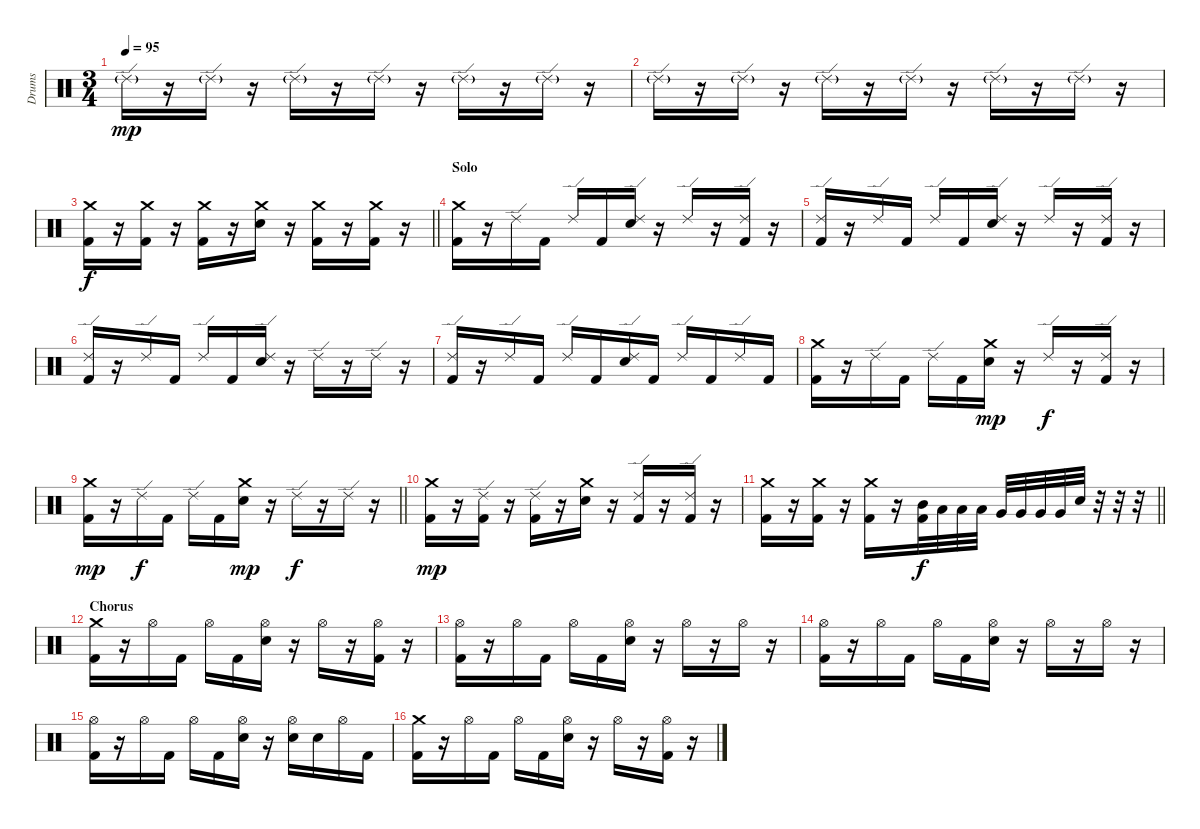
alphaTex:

\track ("Drums" "Drums") {instrument percussion}
\staff {score}
\articulation defaults
\ts (3 4)
\tempo 95
\clef neutral
\ks c "Ride (edge) 2"{g}.16{dy mp}
r.16 "Ride (edge) 2"{g}.16 r.16 "Ride (edge) 2"{g}.16 r.16 "Ride (edge) 2"{g}.16 r.16 "Ride (edge) 2"{g}.16 r.16 "Ride (edge) 2"{g}.16 r.16 |
"Ride (edge) 2"{g}.16 r.16 "Ride (edge) 2"{g}.16 r.16 "Ride (edge) 2"{g}.16 r.16 "Ride (edge) 2"{g}.16 r.16 "Ride (edge) 2"{g}.16 r.16 "Ride (edge) 2"{g}.16 r.16 |
\barLineRight lightlight
("Crash medium (hit)" "Kick (hit) 2").16{dy f} r.16 ("Crash medium (hit)" "Kick (hit) 2").16 r.16 ("Crash medium (hit)" "Kick (hit) 2").16 r.16 ("Crash medium (hit)" "Electric Snare (hit)").16 r.16 ("Crash medium (hit)" "Kick (hit) 2").16 r.16 ("Crash medium (hit)" "Kick (hit) 2").16 r.16 |
\section ("" "Solo")
("Crash medium (hit)" "Kick (hit) 2").16 r.16 "Ride (edge) 2".16 "Kick (hit) 2".16 "Ride (edge) 2".16 "Kick (hit) 2".16 ("Ride (edge) 2" "Electric Snare (hit)").16 r.16 "Ride (edge) 2".16 r.16 ("Ride (edge) 2" "Kick (hit) 2").16 r.16 |
("Ride (edge) 2" "Kick (hit) 2").16 r.16 "Ride (edge) 2".16 "Kick (hit) 2".16 "Ride (edge) 2".16 "Kick (hit) 2".16 ("Ride (edge) 2" "Electric Snare (hit)").16 r.16 "Ride (edge) 2".16 r.16 ("Ride (edge) 2" "Kick (hit) 2").16 r.16 |
("Ride (edge) 2" "Kick (hit) 2").16 r.16 "Ride (edge) 2".16 "Kick (hit) 2".16 "Ride (edge) 2".16 "Kick (hit) 2".16 ("Ride (edge) 2" "Electric Snare (hit)").16 r.16 "Ride (edge) 2".16 r.16 "Ride (edge) 2".16 r.16 |
("Ride (edge) 2" "Kick (hit) 2").16 r.16 "Ride (edge) 2".16 "Kick (hit) 2".16 "Ride (edge) 2".16 "Kick (hit) 2".16 ("Ride (edge) 2" "Electric Snare (hit)").16 "Kick (hit) 2".16 "Ride (edge) 2".16 "Kick (hit) 2".16 "Ride (edge) 2".16 "Kick (hit) 2".16 |
("Crash medium (hit)" "Kick (hit) 2").16 r.16 "Ride (edge) 2".16 "Kick (hit) 2".16 "Ride (edge) 2".16 "Kick (hit) 2".16 ("Crash medium (hit)" "Electric Snare (hit)").16{dy mp} r.16 "Ride (edge) 2".16{dy f} r.16 ("Ride (edge) 2" "Kick (hit) 2").16 r.16 |
\barLineRight lightlight
("Crash medium (hit)" "Kick (hit) 2").16{dy mp} r.16 "Ride (edge) 2".16{dy f} "Kick (hit) 2".16 "Ride (edge) 2".16 "Kick (hit) 2".16 ("Crash medium (hit)" "Electric Snare (hit)").16{dy mp} r.16 "Ride (edge) 2".16{dy f} r.16 "Ride (edge) 2".16 r.16 |
("Crash medium (hit)" "Kick (hit) 2").16{dy mp} r.16 ("Ride (edge) 2" "Kick (hit) 2").16 r.16 ("Ride (edge) 2" "Kick (hit) 2").16 r.16 ("Crash medium (hit)" "Electric Snare (hit)").16 r.16 ("Ride (edge) 2" "Kick (hit) 2").16 r.16 ("Ride (edge) 2" "Kick (hit) 2").16 r.16 |
\barLineRight lightlight
("Crash medium (hit)" "Kick (hit) 2").16 r.16 ("Crash medium (hit)" "Kick (hit) 2").16 r.16 ("Crash medium (hit)" "Kick (hit) 2").16 r.16 ("Kick (hit) 2" "Mid Tom (hit)").32{dy f} "Low Tom (hit)".32 "Low Tom (hit)".32 "Low Tom (hit)".32 "Very Low Tom (hit)".32 "Very Low Tom (hit)".32 "Very Low Tom (hit)".32 "Very Low Tom (hit)".32 "Electric Snare (hit)".32 r.32 r.32 r.32 |
\section ("" "Chorus")
("Crash medium (hit)" "Kick (hit) 2").16 r.16 "Hi-Hat (open)".16 "Kick (hit) 2".16 "Hi-Hat (open)".16 "Kick (hit) 2".16 ("Hi-Hat (open)" "Electric Snare (hit)").16 r.16 "Hi-Hat (open)".16 r.16 ("Hi-Hat (open)" "Kick (hit) 2").16 r.16 |
("Hi-Hat (open)" "Kick (hit) 2").16 r.16 "Hi-Hat (open)".16 "Kick (hit) 2".16 "Hi-Hat (open)".16 "Kick (hit) 2".16 ("Hi-Hat (open)" "Electric Snare (hit)").16 r.16 "Hi-Hat (open)".16 r.16 "Hi-Hat (open)".16 r.16 |
("Hi-Hat (open)" "Kick (hit) 2").16 r.16 "Hi-Hat (open)".16 "Kick (hit) 2".16 "Hi-Hat (open)".16 "Kick (hit) 2".16 ("Hi-Hat (open)" "Electric Snare (hit)").16 r.16 "Hi-Hat (open)".16 r.16 "Hi-Hat (open)".16 r.16 |
("Hi-Hat (open)" "Kick (hit) 2").16 r.16 "Hi-Hat (open)".16 "Kick (hit) 2".16 "Hi-Hat (open)".16 "Kick (hit) 2".16 ("Hi-Hat (open)" "Electric Snare (hit)").16 r.16 ("Hi-Hat (open)" "Electric Snare (hit)").16 "Electric Snare (hit)".16 "Hi-Hat (open)".16 "Kick (hit) 2".16 |
("Crash medium (hit)" "Kick (hit) 2").16 r.16 "Hi-Hat (open)".16 "Kick (hit) 2".16 "Hi-Hat (open)".16 "Kick (hit) 2".16 ("Hi-Hat (open)" "Electric Snare (hit)").16 r.16 "Hi-Hat (open)".16 r.16 ("Hi-Hat (open)" "Kick (hit) 2").16 r.16
